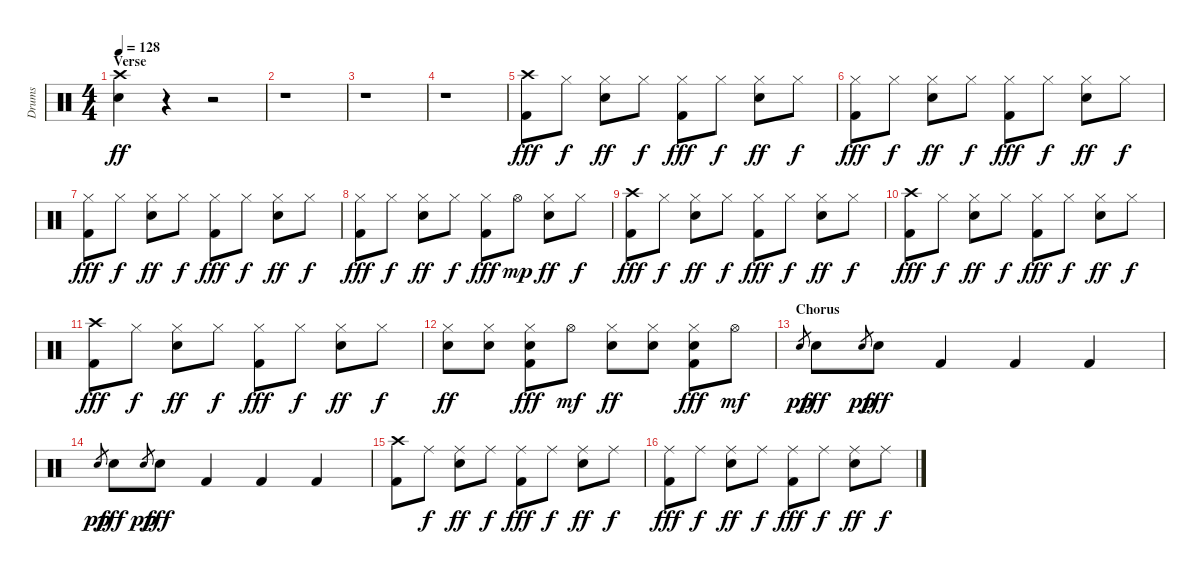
\track ("Drums" "Drums") {instrument percussion}
\staff {score}
\articulation defaults
\ts (4 4)
\section ("" "Verse")
\tempo 128
\clef neutral
\ks c
("Crash high (hit)" "Electric Snare (hit)").4{dy ff} r.4 r.2 |
r.1 |
r.1 |
r.1 |
("Crash high (hit)" "Kick (hit) 2").8{dy fff} "Hi-Hat (closed)".8{dy f} ("Hi-Hat (closed)" "Electric Snare (hit)").8{dy ff} "Hi-Hat (closed)".8{dy f} ("Hi-Hat (closed)" "Kick (hit) 2").8{dy fff} "Hi-Hat (closed)".8{dy f} ("Hi-Hat (closed)" "Electric Snare (hit)").8{dy ff} "Hi-Hat (closed)".8{dy f} |
("Hi-Hat (closed)" "Kick (hit) 2").8{dy fff} "Hi-Hat (closed)".8{dy f} ("Hi-Hat (closed)" "Electric Snare (hit)").8{dy ff} "Hi-Hat (closed)".8{dy f} ("Hi-Hat (closed)" "Kick (hit) 2").8{dy fff} "Hi-Hat (closed)".8{dy f} ("Hi-Hat (closed)" "Electric Snare (hit)").8{dy ff} "Hi-Hat (closed)".8{dy f} |
("Hi-Hat (closed)" "Kick (hit) 2").8{dy fff} "Hi-Hat (closed)".8{dy f} ("Hi-Hat (closed)" "Electric Snare (hit)").8{dy ff} "Hi-Hat (closed)".8{dy f} ("Hi-Hat (closed)" "Kick (hit) 2").8{dy fff} "Hi-Hat (closed)".8{dy f} ("Hi-Hat (closed)" "Electric Snare (hit)").8{dy ff} "Hi-Hat (closed)".8{dy f} |
("Hi-Hat (closed)" "Kick (hit) 2").8{dy fff} "Hi-Hat (closed)".8{dy f} ("Hi-Hat (closed)" "Electric Snare (hit)").8{dy ff} "Hi-Hat (closed)".8{dy f} ("Hi-Hat (closed)" "Kick (hit) 2").8{dy fff} "Hi-Hat (open)".8{dy mp} ("Hi-Hat (closed)" "Electric Snare (hit)").8{dy ff} "Hi-Hat (closed)".8{dy f} |
("Crash high (hit)" "Kick (hit) 2").8{dy fff} "Hi-Hat (closed)".8{dy f} ("Hi-Hat (closed)" "Electric Snare (hit)").8{dy ff} "Hi-Hat (closed)".8{dy f} ("Hi-Hat (closed)" "Kick (hit) 2").8{dy fff} "Hi-Hat (closed)".8{dy f} ("Hi-Hat (closed)" "Electric Snare (hit)").8{dy ff} "Hi-Hat (closed)".8{dy f} |
("Crash high (hit)" "Kick (hit) 2").8{dy fff} "Hi-Hat (closed)".8{dy f} ("Hi-Hat (closed)" "Electric Snare (hit)").8{dy ff} "Hi-Hat (closed)".8{dy f} ("Hi-Hat (closed)" "Kick (hit) 2").8{dy fff} "Hi-Hat (closed)".8{dy f} ("Hi-Hat (closed)" "Electric Snare (hit)").8{dy ff} "Hi-Hat (closed)".8{dy f} |
("Crash high (hit)" "Kick (hit) 2").8{dy fff} "Hi-Hat (closed)".8{dy f} ("Hi-Hat (closed)" "Electric Snare (hit)").8{dy ff} "Hi-Hat (closed)".8{dy f} ("Hi-Hat (closed)" "Kick (hit) 2").8{dy fff} "Hi-Hat (closed)".8{dy f} ("Hi-Hat (closed)" "Electric Snare (hit)").8{dy ff} "Hi-Hat (closed)".8{dy f} |
("Hi-Hat (closed)" "Electric Snare (hit)").8{dy ff} ("Hi-Hat (closed)" "Electric Snare (hit)").8 ("Hi-Hat (closed)" "Electric Snare (hit)" "Kick (hit) 2").8{dy fff} "Hi-Hat (open)".8{dy mf} ("Hi-Hat (closed)" "Electric Snare (hit)").8{dy ff} ("Hi-Hat (closed)" "Electric Snare (hit)").8 ("Hi-Hat (closed)" "Electric Snare (hit)" "Kick (hit) 2").8{dy fff} "Hi-Hat (open)".8{dy mf} |
\section ("" "Chorus")
"Electric Snare (hit)".8{gr dy pp} "Electric Snare (hit)".8{dy fff} "Electric Snare (hit)".8{gr dy pp} "Electric Snare (hit)".8{dy fff} "Kick (hit) 2".4 "Kick (hit) 2".4 "Kick (hit) 2".4 |
"Electric Snare (hit)".8{gr dy pp} "Electric Snare (hit)".8{dy fff} "Electric Snare (hit)".8{gr dy pp} "Electric Snare (hit)".8{dy fff} "Kick (hit) 2".4 "Kick (hit) 2".4 "Kick (hit) 2".4 |
("Crash high (hit)" "Kick (hit) 2").8 "Ride (middle)".8{dy f} ("Ride (middle)" "Electric Snare (hit)").8{dy ff} "Ride (middle)".8{dy f} ("Ride (middle)" "Kick (hit) 2").8{dy fff} "Ride (middle)".8{dy f} ("Ride (middle)" "Electric Snare (hit)").8{dy ff} "Ride (middle)".8{dy f} |
("Ride (middle)" "Kick (hit) 2").8{dy fff} "Ride (middle)".8{dy f} ("Ride (middle)" "Electric Snare (hit)").8{dy ff} "Ride (middle)".8{dy f} ("Ride (middle)" "Kick (hit) 2").8{dy fff} "Ride (middle)".8{dy f} ("Ride (middle)" "Electric Snare (hit)").8{dy ff} "Ride (middle)".8{dy f}
